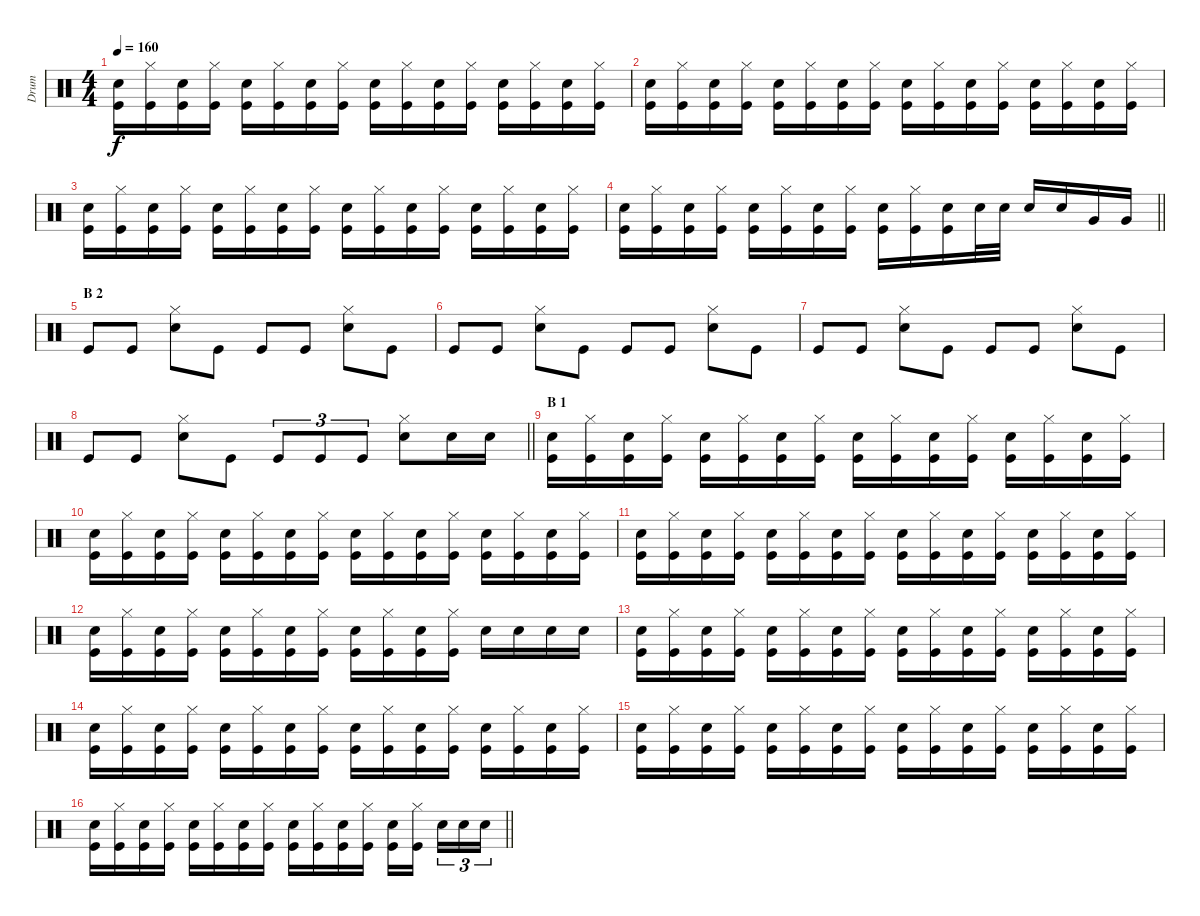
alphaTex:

\track ("Drum" "Drum") {instrument percussion}
\staff
\articulation defaults
\ts (4 4)
\tempo 160
\clef neutral
\ks c
("Snare (hit) 2" "Kick (hit)").16{dy f} ("Hi-Hat (closed)" "Kick (hit)").16 ("Snare (hit) 2" "Kick (hit)").16 ("Hi-Hat (closed)" "Kick (hit)").16 ("Snare (hit) 2" "Kick (hit)").16 ("Hi-Hat (closed)" "Kick (hit)").16 ("Snare (hit) 2" "Kick (hit)").16 ("Hi-Hat (closed)" "Kick (hit)").16 ("Snare (hit) 2" "Kick (hit)").16 ("Hi-Hat (closed)" "Kick (hit)").16 ("Snare (hit) 2" "Kick (hit)").16 ("Hi-Hat (closed)" "Kick (hit)").16 ("Snare (hit) 2" "Kick (hit)").16 ("Hi-Hat (closed)" "Kick (hit)").16 ("Snare (hit) 2" "Kick (hit)").16 ("Hi-Hat (closed)" "Kick (hit)").16 |
("Snare (hit) 2" "Kick (hit)").16 ("Hi-Hat (closed)" "Kick (hit)").16 ("Snare (hit) 2" "Kick (hit)").16 ("Hi-Hat (closed)" "Kick (hit)").16 ("Snare (hit) 2" "Kick (hit)").16 ("Hi-Hat (closed)" "Kick (hit)").16 ("Snare (hit) 2" "Kick (hit)").16 ("Hi-Hat (closed)" "Kick (hit)").16 ("Snare (hit) 2" "Kick (hit)").16 ("Hi-Hat (closed)" "Kick (hit)").16 ("Snare (hit) 2" "Kick (hit)").16 ("Hi-Hat (closed)" "Kick (hit)").16 ("Snare (hit) 2" "Kick (hit)").16 ("Hi-Hat (closed)" "Kick (hit)").16 ("Snare (hit) 2" "Kick (hit)").16 ("Hi-Hat (closed)" "Kick (hit)").16 |
("Snare (hit) 2" "Kick (hit)").16 ("Hi-Hat (closed)" "Kick (hit)").16 ("Snare (hit) 2" "Kick (hit)").16 ("Hi-Hat (closed)" "Kick (hit)").16 ("Snare (hit) 2" "Kick (hit)").16 ("Hi-Hat (closed)" "Kick (hit)").16 ("Snare (hit) 2" "Kick (hit)").16 ("Hi-Hat (closed)" "Kick (hit)").16 ("Snare (hit) 2" "Kick (hit)").16 ("Hi-Hat (closed)" "Kick (hit)").16 ("Snare (hit) 2" "Kick (hit)").16 ("Hi-Hat (closed)" "Kick (hit)").16 ("Snare (hit) 2" "Kick (hit)").16 ("Hi-Hat (closed)" "Kick (hit)").16 ("Snare (hit) 2" "Kick (hit)").16 ("Hi-Hat (closed)" "Kick (hit)").16 |
\barLineRight lightlight
("Snare (hit) 2" "Kick (hit)").16 ("Hi-Hat (closed)" "Kick (hit)").16 ("Snare (hit) 2" "Kick (hit)").16 ("Hi-Hat (closed)" "Kick (hit)").16 ("Snare (hit) 2" "Kick (hit)").16 ("Hi-Hat (closed)" "Kick (hit)").16 ("Snare (hit) 2" "Kick (hit)").16 ("Hi-Hat (closed)" "Kick (hit)").16 ("Snare (hit) 2" "Kick (hit)").16 ("Hi-Hat (closed)" "Kick (hit)").16 ("Snare (hit) 2" "Kick (hit)").16 "Snare (hit) 2".32 "Snare (hit) 2".32 "Snare (hit) 2".16 "Snare (hit) 2".16 "Very Low Tom (hit)".16 "Very Low Tom (hit)".16 |
\section ("" "B 2")
"Kick (hit)".8 "Kick (hit)".8 ("Hi-Hat (closed)" "Snare (hit) 2").8 "Kick (hit)".8 "Kick (hit)".8 "Kick (hit)".8 ("Hi-Hat (closed)" "Snare (hit) 2").8 "Kick (hit)".8 |
"Kick (hit)".8 "Kick (hit)".8 ("Hi-Hat (closed)" "Snare (hit) 2").8 "Kick (hit)".8 "Kick (hit)".8 "Kick (hit)".8 ("Hi-Hat (closed)" "Snare (hit) 2").8 "Kick (hit)".8 |
"Kick (hit)".8 "Kick (hit)".8 ("Hi-Hat (closed)" "Snare (hit) 2").8 "Kick (hit)".8 "Kick (hit)".8 "Kick (hit)".8 ("Hi-Hat (closed)" "Snare (hit) 2").8 "Kick (hit)".8 |
\barLineRight lightlight "Kick (hit)".8 "Kick (hit)".8
("Hi-Hat (closed)" "Snare (hit) 2").8 "Kick (hit)".8 "Kick (hit)".8{tu (3 2)} "Kick (hit)".8{tu (3 2)} "Kick (hit)".8{tu (3 2)} ("Hi-Hat (closed)" "Snare (hit) 2").8 "Snare (hit) 2".16 "Snare (hit) 2".16 |
\section ("" "B 1")
("Snare (hit) 2" "Kick (hit)").16 ("Hi-Hat (closed)" "Kick (hit)").16 ("Snare (hit) 2" "Kick (hit)").16 ("Hi-Hat (closed)" "Kick (hit)").16 ("Snare (hit) 2" "Kick (hit)").16 ("Hi-Hat (closed)" "Kick (hit)").16 ("Snare (hit) 2" "Kick (hit)").16 ("Hi-Hat (closed)" "Kick (hit)").16 ("Snare (hit) 2" "Kick (hit)").16 ("Hi-Hat (closed)" "Kick (hit)").16 ("Snare (hit) 2" "Kick (hit)").16 ("Hi-Hat (closed)" "Kick (hit)").16 ("Snare (hit) 2" "Kick (hit)").16 ("Hi-Hat (closed)" "Kick (hit)").16 ("Snare (hit) 2" "Kick (hit)").16 ("Hi-Hat (closed)" "Kick (hit)").16 |
("Snare (hit) 2" "Kick (hit)").16 ("Hi-Hat (closed)" "Kick (hit)").16 ("Snare (hit) 2" "Kick (hit)").16 ("Hi-Hat (closed)" "Kick (hit)").16 ("Snare (hit) 2" "Kick (hit)").16 ("Hi-Hat (closed)" "Kick (hit)").16 ("Snare (hit) 2" "Kick (hit)").16 ("Hi-Hat (closed)" "Kick (hit)").16 ("Snare (hit) 2" "Kick (hit)").16 ("Hi-Hat (closed)" "Kick (hit)").16 ("Snare (hit) 2" "Kick (hit)").16 ("Hi-Hat (closed)" "Kick (hit)").16 ("Snare (hit) 2" "Kick (hit)").16 ("Hi-Hat (closed)" "Kick (hit)").16 ("Snare (hit) 2" "Kick (hit)").16 ("Hi-Hat (closed)" "Kick (hit)").16 |
("Snare (hit) 2" "Kick (hit)").16 ("Hi-Hat (closed)" "Kick (hit)").16 ("Snare (hit) 2" "Kick (hit)").16 ("Hi-Hat (closed)" "Kick (hit)").16 ("Snare (hit) 2" "Kick (hit)").16 ("Hi-Hat (closed)" "Kick (hit)").16 ("Snare (hit) 2" "Kick (hit)").16 ("Hi-Hat (closed)" "Kick (hit)").16 ("Snare (hit) 2" "Kick (hit)").16 ("Hi-Hat (closed)" "Kick (hit)").16 ("Snare (hit) 2" "Kick (hit)").16 ("Hi-Hat (closed)" "Kick (hit)").16 ("Snare (hit) 2" "Kick (hit)").16 ("Hi-Hat (closed)" "Kick (hit)").16 ("Snare (hit) 2" "Kick (hit)").16 ("Hi-Hat (closed)" "Kick (hit)").16 |
("Snare (hit) 2" "Kick (hit)").16 ("Hi-Hat (closed)" "Kick (hit)").16 ("Snare (hit) 2" "Kick (hit)").16 ("Hi-Hat (closed)" "Kick (hit)").16 ("Snare (hit) 2" "Kick (hit)").16 ("Hi-Hat (closed)" "Kick (hit)").16 ("Snare (hit) 2" "Kick (hit)").16 ("Hi-Hat (closed)" "Kick (hit)").16 ("Snare (hit) 2" "Kick (hit)").16 ("Hi-Hat (closed)" "Kick (hit)").16 ("Snare (hit) 2" "Kick (hit)").16 ("Hi-Hat (closed)" "Kick (hit)").16 "Snare (hit) 2".16 "Snare (hit) 2".16 "Snare (hit) 2".16 "Snare (hit) 2".16 |
("Snare (hit) 2" "Kick (hit)").16 ("Hi-Hat (closed)" "Kick (hit)").16 ("Snare (hit) 2" "Kick (hit)").16 ("Hi-Hat (closed)" "Kick (hit)").16 ("Snare (hit) 2" "Kick (hit)").16 ("Hi-Hat (closed)" "Kick (hit)").16 ("Snare (hit) 2" "Kick (hit)").16 ("Hi-Hat (closed)" "Kick (hit)").16 ("Snare (hit) 2" "Kick (hit)").16 ("Hi-Hat (closed)" "Kick (hit)").16 ("Snare (hit) 2" "Kick (hit)").16 ("Hi-Hat (closed)" "Kick (hit)").16 ("Snare (hit) 2" "Kick (hit)").16 ("Hi-Hat (closed)" "Kick (hit)").16 ("Snare (hit) 2" "Kick (hit)").16 ("Hi-Hat (closed)" "Kick (hit)").16 |
("Snare (hit) 2" "Kick (hit)").16 ("Hi-Hat (closed)" "Kick (hit)").16 ("Snare (hit) 2" "Kick (hit)").16 ("Hi-Hat (closed)" "Kick (hit)").16 ("Snare (hit) 2" "Kick (hit)").16 ("Hi-Hat (closed)" "Kick (hit)").16 ("Snare (hit) 2" "Kick (hit)").16 ("Hi-Hat (closed)" "Kick (hit)").16 ("Snare (hit) 2" "Kick (hit)").16 ("Hi-Hat (closed)" "Kick (hit)").16 ("Snare (hit) 2" "Kick (hit)").16 ("Hi-Hat (closed)" "Kick (hit)").16 ("Snare (hit) 2" "Kick (hit)").16 ("Hi-Hat (closed)" "Kick (hit)").16 ("Snare (hit) 2" "Kick (hit)").16 ("Hi-Hat (closed)" "Kick (hit)").16 |
("Snare (hit) 2" "Kick (hit)").16 ("Hi-Hat (closed)" "Kick (hit)").16 ("Snare (hit) 2" "Kick (hit)").16 ("Hi-Hat (closed)" "Kick (hit)").16 ("Snare (hit) 2" "Kick (hit)").16 ("Hi-Hat (closed)" "Kick (hit)").16 ("Snare (hit) 2" "Kick (hit)").16 ("Hi-Hat (closed)" "Kick (hit)").16 ("Snare (hit) 2" "Kick (hit)").16 ("Hi-Hat (closed)" "Kick (hit)").16 ("Snare (hit) 2" "Kick (hit)").16 ("Hi-Hat (closed)" "Kick (hit)").16 ("Snare (hit) 2" "Kick (hit)").16 ("Hi-Hat (closed)" "Kick (hit)").16 ("Snare (hit) 2" "Kick (hit)").16 ("Hi-Hat (closed)" "Kick (hit)").16 |
\barLineRight lightlight
("Snare (hit) 2" "Kick (hit)").16 ("Hi-Hat (closed)" "Kick (hit)").16 ("Snare (hit) 2" "Kick (hit)").16 ("Hi-Hat (closed)" "Kick (hit)").16 ("Snare (hit) 2" "Kick (hit)").16 ("Hi-Hat (closed)" "Kick (hit)").16 ("Snare (hit) 2" "Kick (hit)").16 ("Hi-Hat (closed)" "Kick (hit)").16 ("Snare (hit) 2" "Kick (hit)").16 ("Hi-Hat (closed)" "Kick (hit)").16 ("Snare (hit) 2" "Kick (hit)").16 ("Hi-Hat (closed)" "Kick (hit)").16 ("Snare (hit) 2" "Kick (hit)").16 ("Hi-Hat (closed)" "Kick (hit)").16{beam splitsecondary} "Snare (hit) 2".16{tu (3 2)} "Snare (hit) 2".16{tu (3 2)} "Snare (hit) 2".16{tu (3 2)}
